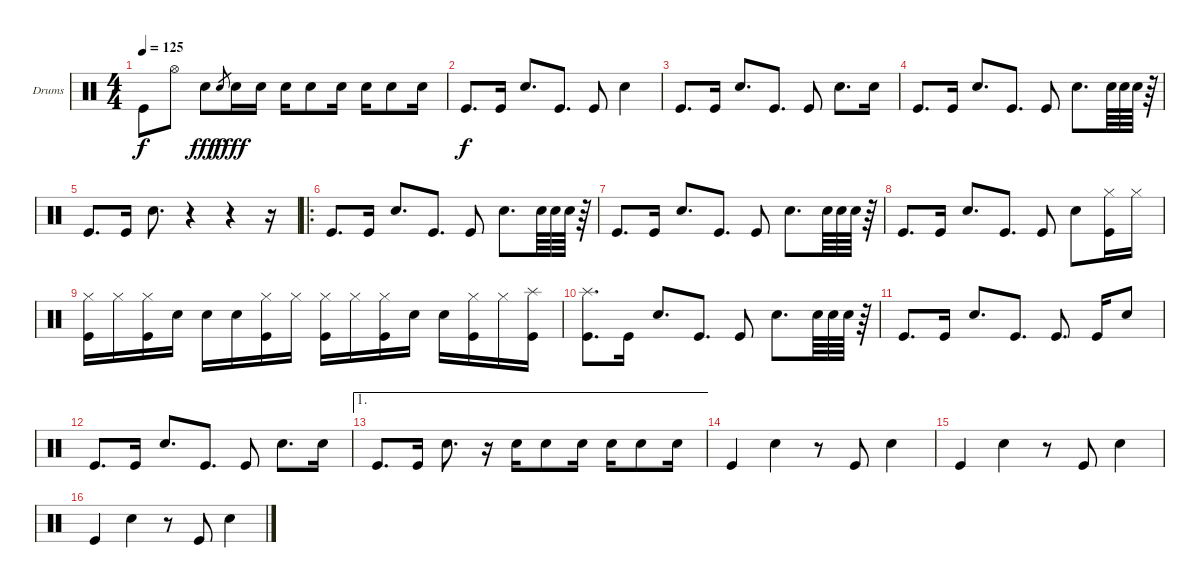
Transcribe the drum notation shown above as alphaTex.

\bracketExtendMode groupsimilarinstruments
\firstSystemTrackNameOrientation horizontal
\otherSystemsTrackNameOrientation horizontal
\track ("Drumkit" "Drums") {instrument percussion}
\staff {score}
\articulation defaults
\ts (4 4)
\tempo 125
\clef neutral
\ks c "Kick (hit)".8{dy f} "Hi-Hat (open)".8 "Snare (hit) 2".8{dy fff} "Snare (hit) 2".8{gr dy f} "Snare (hit) 2".16{dy fff} "Snare (hit) 2".16 "Snare (hit) 2".16 "Snare (hit) 2".8 "Snare (hit) 2".16 "Snare (hit) 2".16 "Snare (hit) 2".8 "Snare (hit) 2".16
|
"Kick (hit)".8{d dy f} "Kick (hit)".16 "Snare (hit) 2".8{d} "Kick (hit)".8{d} "Kick (hit)".8 "Snare (hit) 2".4 |
"Kick (hit)".8{d} "Kick (hit)".16 "Snare (hit) 2".8{d} "Kick (hit)".8{d} "Kick (hit)".8 "Snare (hit) 2".8{d} "Snare (hit) 2".16 |
"Kick (hit)".8{d} "Kick (hit)".16 "Snare (hit) 2".8{d} "Kick (hit)".8{d} "Kick (hit)".8 "Snare (hit) 2".8{d} "Snare (hit) 2".64 "Snare (hit) 2".64 "Snare (hit) 2".64 r.64 |
"Kick (hit)".8{d} "Kick (hit)".16 "Snare (hit) 2".8{d} r.4 r.4 r.16 |
\ro "Kick (hit)".8{d} "Kick (hit)".16 "Snare (hit) 2".8{d} "Kick (hit)".8{d} "Kick (hit)".8 "Snare (hit) 2".8{d} "Snare (hit) 2".64 "Snare (hit) 2".64 "Snare (hit) 2".64
r.64 |
"Kick (hit)".8{d} "Kick (hit)".16 "Snare (hit) 2".8{d} "Kick (hit)".8{d} "Kick (hit)".8 "Snare (hit) 2".8{d} "Snare (hit) 2".64 "Snare (hit) 2".64 "Snare (hit) 2".64 r.64 |
"Kick (hit)".8{d} "Kick (hit)".16 "Snare (hit) 2".8{d} "Kick (hit)".8{d} "Kick (hit)".8 "Snare (hit) 2".8 ("Hi-Hat (closed)" "Kick (hit)").16 "Hi-Hat (closed)".16 |
("Hi-Hat (closed)" "Kick (hit)").16 "Hi-Hat (closed)".16 ("Hi-Hat (closed)" "Kick (hit)").16 "Snare (hit) 2".16 "Snare (hit) 2".16 "Snare (hit) 2".16 ("Hi-Hat (closed)" "Kick (hit)").16 "Hi-Hat (closed)".16 ("Hi-Hat (closed)" "Kick (hit)").16 "Hi-Hat (closed)".16 ("Hi-Hat (closed)" "Kick (hit)").16 "Snare (hit) 2".16 "Snare (hit) 2".16 ("Hi-Hat (closed)" "Kick (hit)").16 "Hi-Hat (closed)".16 ("Splash (hit)" "Kick (hit)").16 |
("Splash (hit)" "Kick (hit)").8{d} "Kick (hit)".16 "Snare (hit) 2".8{d} "Kick (hit)".8{d} "Kick (hit)".8 "Snare (hit) 2".8{d} "Snare (hit) 2".64 "Snare (hit) 2".64 "Snare (hit) 2".64 r.64 |
"Kick (hit)".8{d} "Kick (hit)".16 "Snare (hit) 2".8{d} "Kick (hit)".8{d} "Kick (hit)".8{d} "Kick (hit)".16 "Snare (hit) 2".8 |
"Kick (hit)".8{d} "Kick (hit)".16 "Snare (hit) 2".8{d} "Kick (hit)".8{d} "Kick (hit)".8 "Snare (hit) 2".8{d} "Snare (hit) 2".16 |
\ae 1 "Kick (hit)".8{d} "Kick (hit)".16 "Snare (hit) 2".8{d}
r.16 "Snare (hit) 2".16 "Snare (hit) 2".8 "Snare (hit) 2".16 "Snare (hit) 2".16 "Snare (hit) 2".8 "Snare (hit) 2".16 |
"Kick (hit)".4 "Snare (hit) 2".4 r.8 "Kick (hit)".8 "Snare (hit) 2".4 |
"Kick (hit)".4 "Snare (hit) 2".4 r.8 "Kick (hit)".8 "Snare (hit) 2".4 |
"Kick (hit)".4 "Snare (hit) 2".4 r.8 "Kick (hit)".8 "Snare (hit) 2".4
